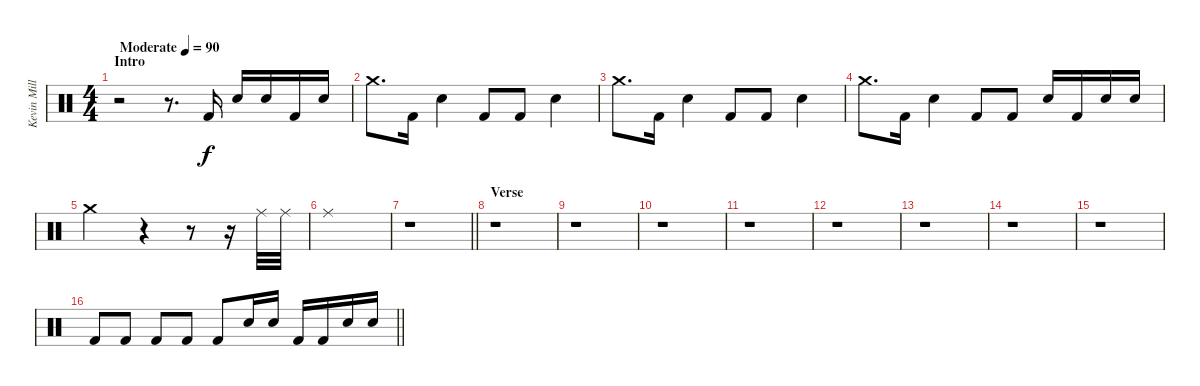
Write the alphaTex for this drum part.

\track ("Kevin Miller (Drums)" "Kevin Mill") {instrument percussion}
\staff {score}
\articulation defaults
\ts (4 4)
\section ("" "Intro")
\tempo (90 "Moderate")
\clef neutral
\ks c
r.2{dy f} r.8{d} "Kick (hit) 2".16 "Electric Snare (hit)".16 "Electric Snare (hit)".16 "Kick (hit) 2".16 "Electric Snare (hit)".16 |
"Crash medium (hit)".8{d} "Kick (hit) 2".16 "Electric Snare (hit)".4 "Kick (hit) 2".8 "Kick (hit) 2".8 "Electric Snare (hit)".4 |
"Crash medium (hit)".8{d} "Kick (hit) 2".16 "Electric Snare (hit)".4 "Kick (hit) 2".8 "Kick (hit) 2".8 "Electric Snare (hit)".4 |
"Crash medium (hit)".8{d} "Kick (hit) 2".16 "Electric Snare (hit)".4 "Kick (hit) 2".8 "Kick (hit) 2".8 "Electric Snare (hit)".16 "Kick (hit) 2".16 "Electric Snare (hit)".16 "Electric Snare (hit)".16 |
"Crash medium (hit)".2 r.4 r.8 r.16 "Ride (middle)".32 "Ride (middle)".32 |
"Ride (middle)".1 |
\barLineRight lightlight
r.1 |
\section ("" "Verse")
r.1 |
r.1 |
r.1 |
r.1 |
r.1 |
r.1 |
r.1 |
r.1 |
\barLineRight lightlight "Kick (hit) 2".8{volume 0} "Kick (hit) 2".8{volume 12} "Kick (hit) 2".8 "Kick (hit) 2".8 "Kick (hit) 2".8 "Electric Snare (hit)".16 "Electric Snare (hit)".16 "Kick (hit) 2".16 "Kick (hit) 2".16 "Electric Snare (hit)".16 "Electric Snare (hit)".16
